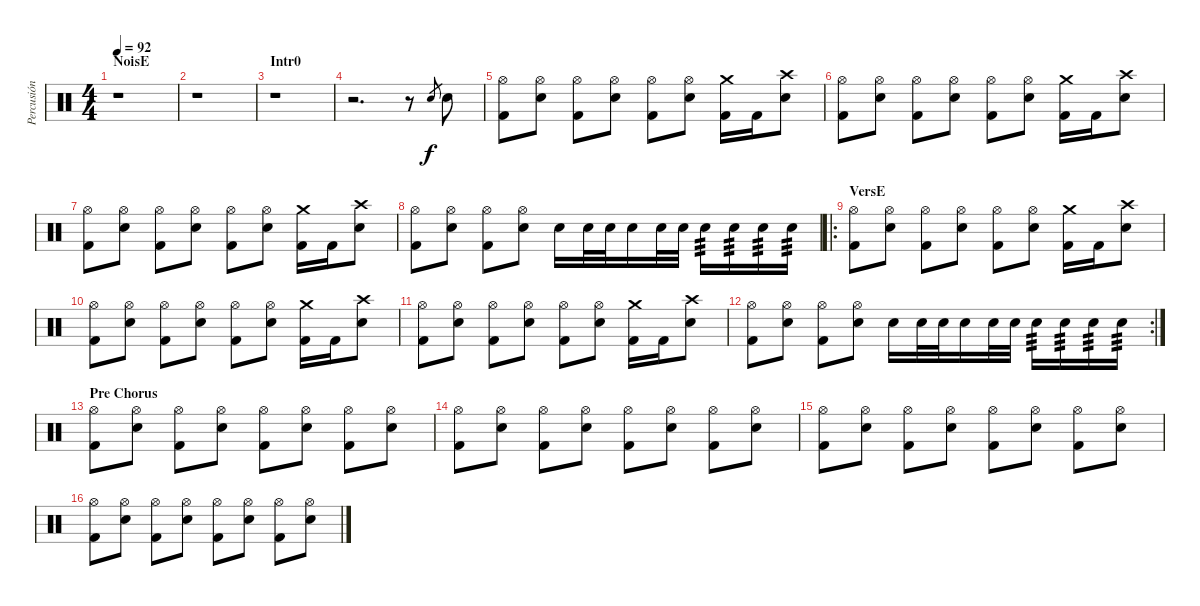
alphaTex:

\track ("Percusión" "Percusión") {instrument percussion}
\staff {score}
\articulation defaults
\ts (4 4)
\section ("" "NoisE")
\tempo 92
\clef neutral
\ks c
r.1{dy f} |
r.1 |
\section ("" "Intr0")
r.1 |
r.2{d} r.8 "Electric Snare (hit)".8{gr} "Electric Snare (hit)".8 |
("Hi-Hat (open)" "Kick (hit) 2").8 ("Hi-Hat (open)" "Electric Snare (hit)").8 ("Hi-Hat (open)" "Kick (hit) 2").8 ("Hi-Hat (open)" "Electric Snare (hit)").8 ("Hi-Hat (open)" "Kick (hit) 2").8 ("Hi-Hat (open)" "Electric Snare (hit)").8 ("Crash medium (hit)" "Kick (hit) 2").16 "Kick (hit) 2".16 ("Crash high (hit)" "Electric Snare (hit)").8 |
("Hi-Hat (open)" "Kick (hit) 2").8 ("Hi-Hat (open)" "Electric Snare (hit)").8 ("Hi-Hat (open)" "Kick (hit) 2").8 ("Hi-Hat (open)" "Electric Snare (hit)").8 ("Hi-Hat (open)" "Kick (hit) 2").8 ("Hi-Hat (open)" "Electric Snare (hit)").8 ("Crash medium (hit)" "Kick (hit) 2").16 "Kick (hit) 2".16 ("Crash high (hit)" "Electric Snare (hit)").8 |
("Hi-Hat (open)" "Kick (hit) 2").8 ("Hi-Hat (open)" "Electric Snare (hit)").8 ("Hi-Hat (open)" "Kick (hit) 2").8 ("Hi-Hat (open)" "Electric Snare (hit)").8 ("Hi-Hat (open)" "Kick (hit) 2").8 ("Hi-Hat (open)" "Electric Snare (hit)").8 ("Crash medium (hit)" "Kick (hit) 2").16 "Kick (hit) 2".16 ("Crash high (hit)" "Electric Snare (hit)").8 |
("Hi-Hat (open)" "Kick (hit) 2").8 ("Hi-Hat (open)" "Electric Snare (hit)").8 ("Hi-Hat (open)" "Kick (hit) 2").8 ("Hi-Hat (open)" "Electric Snare (hit)").8 "Electric Snare (hit)".16 "Electric Snare (hit)".32 "Electric Snare (hit)".32 "Electric Snare (hit)".16 "Electric Snare (hit)".32 "Electric Snare (hit)".32 "Electric Snare (hit)".16{tp 3} "Electric Snare (hit)".16{tp 3} "Electric Snare (hit)".16{tp 3} "Electric Snare (hit)".16{tp 3} |
\ro
\section ("" "VersE")
("Hi-Hat (open)" "Kick (hit) 2").8 ("Hi-Hat (open)" "Electric Snare (hit)").8 ("Hi-Hat (open)" "Kick (hit) 2").8 ("Hi-Hat (open)" "Electric Snare (hit)").8 ("Hi-Hat (open)" "Kick (hit) 2").8 ("Hi-Hat (open)" "Electric Snare (hit)").8 ("Crash medium (hit)" "Kick (hit) 2").16 "Kick (hit) 2".16 ("Crash high (hit)" "Electric Snare (hit)").8 |
("Hi-Hat (open)" "Kick (hit) 2").8 ("Hi-Hat (open)" "Electric Snare (hit)").8 ("Hi-Hat (open)" "Kick (hit) 2").8 ("Hi-Hat (open)" "Electric Snare (hit)").8 ("Hi-Hat (open)" "Kick (hit) 2").8 ("Hi-Hat (open)" "Electric Snare (hit)").8 ("Crash medium (hit)" "Kick (hit) 2").16 "Kick (hit) 2".16 ("Crash high (hit)" "Electric Snare (hit)").8 |
("Hi-Hat (open)" "Kick (hit) 2").8 ("Hi-Hat (open)" "Electric Snare (hit)").8 ("Hi-Hat (open)" "Kick (hit) 2").8 ("Hi-Hat (open)" "Electric Snare (hit)").8 ("Hi-Hat (open)" "Kick (hit) 2").8 ("Hi-Hat (open)" "Electric Snare (hit)").8 ("Crash medium (hit)" "Kick (hit) 2").16 "Kick (hit) 2".16 ("Crash high (hit)" "Electric Snare (hit)").8 |
\rc 2
("Hi-Hat (open)" "Kick (hit) 2").8 ("Hi-Hat (open)" "Electric Snare (hit)").8 ("Hi-Hat (open)" "Kick (hit) 2").8 ("Hi-Hat (open)" "Electric Snare (hit)").8 "Electric Snare (hit)".16 "Electric Snare (hit)".32 "Electric Snare (hit)".32 "Electric Snare (hit)".16 "Electric Snare (hit)".32 "Electric Snare (hit)".32 "Electric Snare (hit)".16{tp 3} "Electric Snare (hit)".16{tp 3} "Electric Snare (hit)".16{tp 3} "Electric Snare (hit)".16{tp 3} |
\section ("" "Pre Chorus")
("Hi-Hat (open)" "Kick (hit) 2").8 ("Hi-Hat (open)" "Electric Snare (hit)").8 ("Hi-Hat (open)" "Kick (hit) 2").8 ("Hi-Hat (open)" "Electric Snare (hit)").8 ("Hi-Hat (open)" "Kick (hit) 2").8 ("Hi-Hat (open)" "Electric Snare (hit)").8 ("Hi-Hat (open)" "Kick (hit) 2").8 ("Hi-Hat (open)" "Electric Snare (hit)").8 |
("Hi-Hat (open)" "Kick (hit) 2").8 ("Hi-Hat (open)" "Electric Snare (hit)").8 ("Hi-Hat (open)" "Kick (hit) 2").8 ("Hi-Hat (open)" "Electric Snare (hit)").8 ("Hi-Hat (open)" "Kick (hit) 2").8 ("Hi-Hat (open)" "Electric Snare (hit)").8 ("Hi-Hat (open)" "Kick (hit) 2").8 ("Hi-Hat (open)" "Electric Snare (hit)").8 |
("Hi-Hat (open)" "Kick (hit) 2").8 ("Hi-Hat (open)" "Electric Snare (hit)").8 ("Hi-Hat (open)" "Kick (hit) 2").8 ("Hi-Hat (open)" "Electric Snare (hit)").8 ("Hi-Hat (open)" "Kick (hit) 2").8 ("Hi-Hat (open)" "Electric Snare (hit)").8 ("Hi-Hat (open)" "Kick (hit) 2").8 ("Hi-Hat (open)" "Electric Snare (hit)").8 |
("Hi-Hat (open)" "Kick (hit) 2").8 ("Hi-Hat (open)" "Electric Snare (hit)").8 ("Hi-Hat (open)" "Kick (hit) 2").8 ("Hi-Hat (open)" "Electric Snare (hit)").8 ("Hi-Hat (open)" "Kick (hit) 2").8 ("Hi-Hat (open)" "Electric Snare (hit)").8 ("Hi-Hat (open)" "Kick (hit) 2").8 ("Hi-Hat (open)" "Electric Snare (hit)").8
